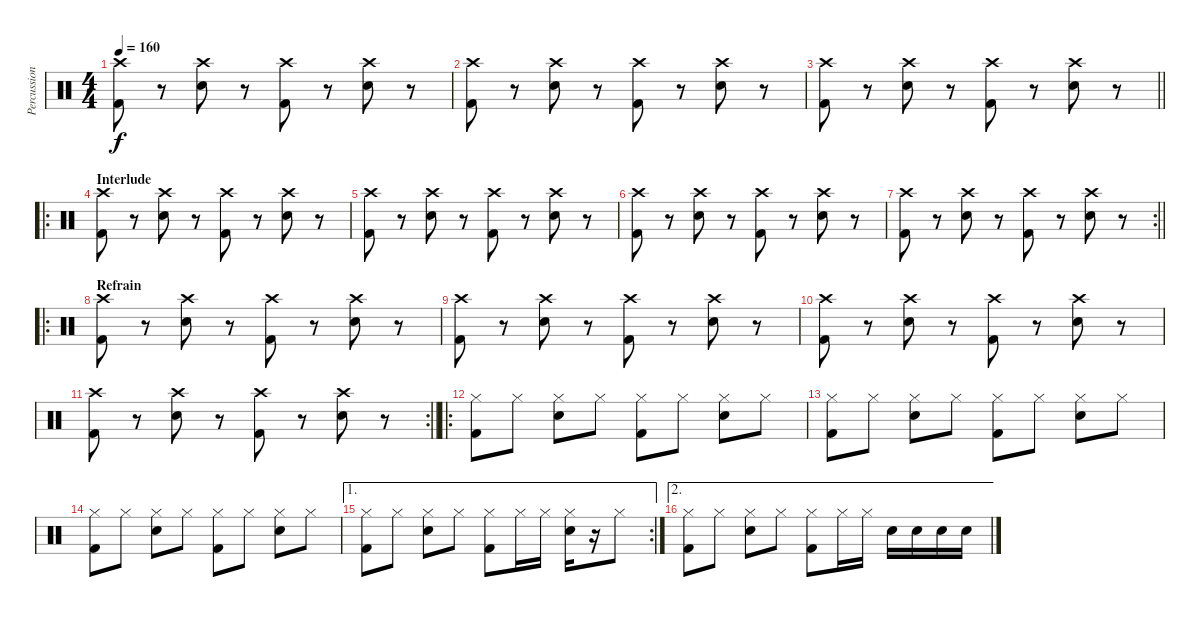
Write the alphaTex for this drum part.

\track ("Percussions" "Percussion") {instrument percussion}
\staff {score}
\articulation defaults
\ts (4 4)
\tempo 160
\clef neutral
\ks c
("Crash high (hit)" "Kick (hit) 2").8{dy f} r.8 ("Crash high (hit)" "Electric Snare (hit)").8 r.8 ("Crash high (hit)" "Kick (hit) 2").8 r.8 ("Crash high (hit)" "Electric Snare (hit)").8 r.8 |
("Crash high (hit)" "Kick (hit) 2").8 r.8 ("Crash high (hit)" "Electric Snare (hit)").8 r.8 ("Crash high (hit)" "Kick (hit) 2").8 r.8 ("Crash high (hit)" "Electric Snare (hit)").8 r.8 |
\barLineRight lightlight
("Crash high (hit)" "Kick (hit) 2").8 r.8 ("Crash high (hit)" "Electric Snare (hit)").8 r.8 ("Crash high (hit)" "Kick (hit) 2").8 r.8 ("Crash high (hit)" "Electric Snare (hit)").8 r.8 |
\ro
\section ("" "Interlude")
("Crash high (hit)" "Kick (hit) 2").8 r.8 ("Crash high (hit)" "Electric Snare (hit)").8 r.8 ("Crash high (hit)" "Kick (hit) 2").8 r.8 ("Crash high (hit)" "Electric Snare (hit)").8 r.8 |
("Crash high (hit)" "Kick (hit) 2").8 r.8 ("Crash high (hit)" "Electric Snare (hit)").8 r.8 ("Crash high (hit)" "Kick (hit) 2").8 r.8 ("Crash high (hit)" "Electric Snare (hit)").8 r.8 |
("Crash high (hit)" "Kick (hit) 2").8 r.8 ("Crash high (hit)" "Electric Snare (hit)").8 r.8 ("Crash high (hit)" "Kick (hit) 2").8 r.8 ("Crash high (hit)" "Electric Snare (hit)").8 r.8 |
\rc 2
\barLineRight lightlight
("Crash high (hit)" "Kick (hit) 2").8 r.8 ("Crash high (hit)" "Electric Snare (hit)").8 r.8 ("Crash high (hit)" "Kick (hit) 2").8 r.8 ("Crash high (hit)" "Electric Snare (hit)").8 r.8 |
\ro
\section ("" "Refrain")
("Crash high (hit)" "Kick (hit) 2").8 r.8 ("Crash high (hit)" "Electric Snare (hit)").8 r.8 ("Crash high (hit)" "Kick (hit) 2").8 r.8 ("Crash high (hit)" "Electric Snare (hit)").8 r.8 |
("Crash high (hit)" "Kick (hit) 2").8 r.8 ("Crash high (hit)" "Electric Snare (hit)").8 r.8 ("Crash high (hit)" "Kick (hit) 2").8 r.8 ("Crash high (hit)" "Electric Snare (hit)").8 r.8 |
("Crash high (hit)" "Kick (hit) 2").8 r.8 ("Crash high (hit)" "Electric Snare (hit)").8 r.8 ("Crash high (hit)" "Kick (hit) 2").8 r.8 ("Crash high (hit)" "Electric Snare (hit)").8 r.8 |
\rc 2
\barLineRight lightlight
("Crash high (hit)" "Kick (hit) 2").8 r.8 ("Crash high (hit)" "Electric Snare (hit)").8 r.8 ("Crash high (hit)" "Kick (hit) 2").8 r.8 ("Crash high (hit)" "Electric Snare (hit)").8 r.8 |
\ro
("Hi-Hat (closed)" "Kick (hit) 2").8 "Hi-Hat (closed)".8 ("Hi-Hat (closed)" "Electric Snare (hit)").8 "Hi-Hat (closed)".8 ("Hi-Hat (closed)" "Kick (hit) 2").8 "Hi-Hat (closed)".8 ("Hi-Hat (closed)" "Electric Snare (hit)").8 "Hi-Hat (closed)".8 |
("Hi-Hat (closed)" "Kick (hit) 2").8 "Hi-Hat (closed)".8 ("Hi-Hat (closed)" "Electric Snare (hit)").8 "Hi-Hat (closed)".8 ("Hi-Hat (closed)" "Kick (hit) 2").8 "Hi-Hat (closed)".8 ("Hi-Hat (closed)" "Electric Snare (hit)").8 "Hi-Hat (closed)".8 |
("Hi-Hat (closed)" "Kick (hit) 2").8 "Hi-Hat (closed)".8 ("Hi-Hat (closed)" "Electric Snare (hit)").8 "Hi-Hat (closed)".8 ("Hi-Hat (closed)" "Kick (hit) 2").8 "Hi-Hat (closed)".8 ("Hi-Hat (closed)" "Electric Snare (hit)").8 "Hi-Hat (closed)".8 |
\ae 1
\rc 2
("Hi-Hat (closed)" "Kick (hit) 2").8 "Hi-Hat (closed)".8 ("Hi-Hat (closed)" "Electric Snare (hit)").8 "Hi-Hat (closed)".8 ("Hi-Hat (closed)" "Kick (hit) 2").8 "Hi-Hat (closed)".16 "Hi-Hat (closed)".16 ("Hi-Hat (closed)" "Electric Snare (hit)").16 r.16 "Hi-Hat (closed)".8 |
\ae 2
("Hi-Hat (closed)" "Kick (hit) 2").8 "Hi-Hat (closed)".8 ("Hi-Hat (closed)" "Electric Snare (hit)").8 "Hi-Hat (closed)".8 ("Hi-Hat (closed)" "Kick (hit) 2").8 "Hi-Hat (closed)".16 "Hi-Hat (closed)".16 "Electric Snare (hit)".16 "Electric Snare (hit)".16 "Electric Snare (hit)".16 "Electric Snare (hit)".16
